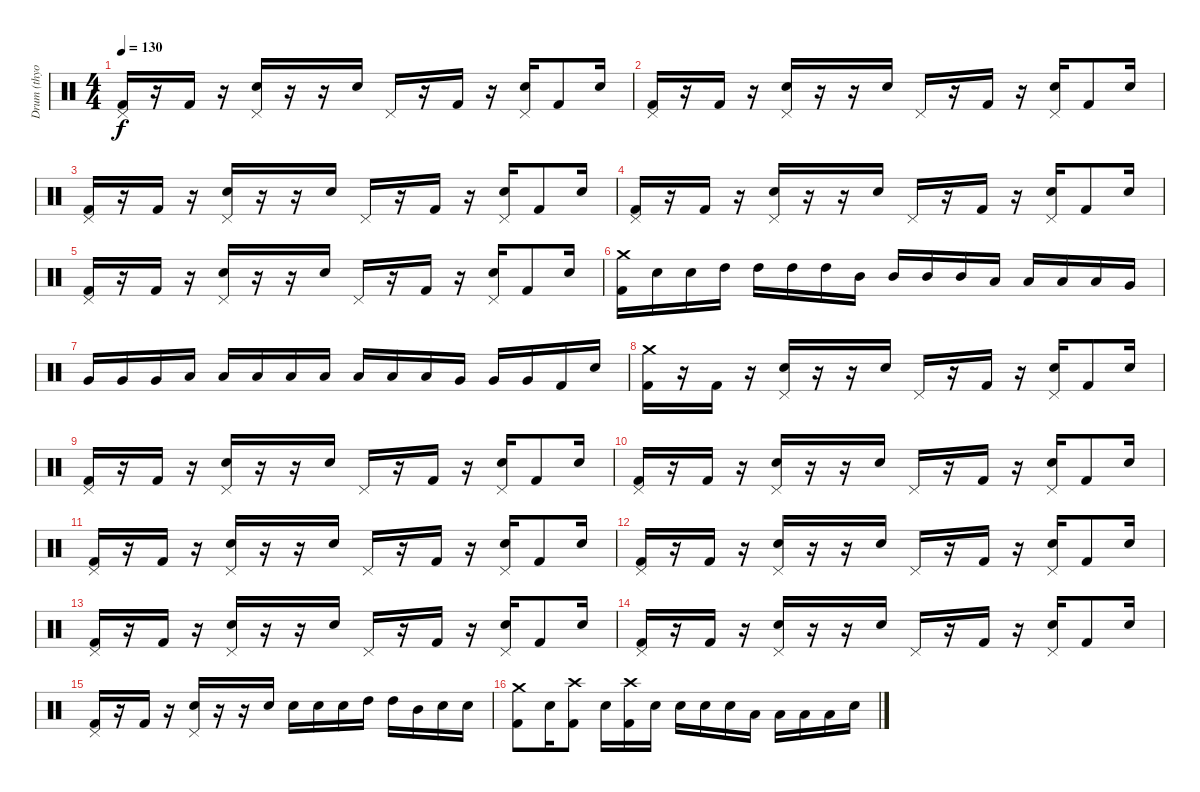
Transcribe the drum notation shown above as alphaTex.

\track ("Drum (thyo)" "Drum (thyo") {instrument percussion}
\staff {score}
\articulation defaults
\ts (4 4)
\tempo 130
\clef neutral
\ks c
("Pedal Hi-Hat (hit)" "Kick (hit) 2").16{dy f} r.16 "Kick (hit) 2".16 r.16 ("Electric Snare (hit)" "Pedal Hi-Hat (hit)").16 r.16 r.16 "Electric Snare (hit)".16 "Pedal Hi-Hat (hit)".16 r.16 "Kick (hit) 2".16 r.16 ("Electric Snare (hit)" "Pedal Hi-Hat (hit)").16 "Kick (hit) 2".8 "Electric Snare (hit)".16 |
("Pedal Hi-Hat (hit)" "Kick (hit) 2").16 r.16 "Kick (hit) 2".16 r.16 ("Electric Snare (hit)" "Pedal Hi-Hat (hit)").16 r.16 r.16 "Electric Snare (hit)".16 "Pedal Hi-Hat (hit)".16 r.16 "Kick (hit) 2".16 r.16 ("Electric Snare (hit)" "Pedal Hi-Hat (hit)").16 "Kick (hit) 2".8 "Electric Snare (hit)".16 |
("Pedal Hi-Hat (hit)" "Kick (hit) 2").16 r.16 "Kick (hit) 2".16 r.16 ("Electric Snare (hit)" "Pedal Hi-Hat (hit)").16 r.16 r.16 "Electric Snare (hit)".16 "Pedal Hi-Hat (hit)".16 r.16 "Kick (hit) 2".16 r.16 ("Electric Snare (hit)" "Pedal Hi-Hat (hit)").16 "Kick (hit) 2".8 "Electric Snare (hit)".16 |
("Pedal Hi-Hat (hit)" "Kick (hit) 2").16 r.16 "Kick (hit) 2".16 r.16 ("Electric Snare (hit)" "Pedal Hi-Hat (hit)").16 r.16 r.16 "Electric Snare (hit)".16 "Pedal Hi-Hat (hit)".16 r.16 "Kick (hit) 2".16 r.16 ("Electric Snare (hit)" "Pedal Hi-Hat (hit)").16 "Kick (hit) 2".8 "Electric Snare (hit)".16 |
("Pedal Hi-Hat (hit)" "Kick (hit) 2").16 r.16 "Kick (hit) 2".16 r.16 ("Electric Snare (hit)" "Pedal Hi-Hat (hit)").16 r.16 r.16 "Electric Snare (hit)".16 "Pedal Hi-Hat (hit)".16 r.16 "Kick (hit) 2".16 r.16 ("Electric Snare (hit)" "Pedal Hi-Hat (hit)").16 "Kick (hit) 2".8 "Electric Snare (hit)".16 |
("Crash medium (hit)" "Kick (hit) 2").16 "Electric Snare (hit)".16 "Electric Snare (hit)".16 "High Tom (hit)".16 "High Tom (hit)".16 "High Tom (hit)".16 "High Tom (hit)".16 "Mid Tom (hit)".16 "Mid Tom (hit)".16 "Mid Tom (hit)".16 "Mid Tom (hit)".16 "Low Tom (hit)".16 "Low Tom (hit)".16 "Low Tom (hit)".16 "Low Tom (hit)".16 "Very Low Tom (hit)".16 |
"Very Low Tom (hit)".16 "Very Low Tom (hit)".16 "Very Low Tom (hit)".16 "Low Floor Tom (hit)".16 "Low Floor Tom (hit)".16 "Low Floor Tom (hit)".16 "Low Floor Tom (hit)".16 "Low Tom (hit)".16 "Low Tom (hit)".16 "Low Tom (hit)".16 "Low Tom (hit)".16 "Very Low Tom (hit)".16 "Very Low Tom (hit)".16 "Very Low Tom (hit)".16 "Kick (hit) 2".16 "Electric Snare (hit)".16 |
("Crash medium (hit)" "Kick (hit) 2").16 r.16 "Kick (hit) 2".16 r.16 ("Electric Snare (hit)" "Pedal Hi-Hat (hit)").16 r.16 r.16 "Electric Snare (hit)".16 "Pedal Hi-Hat (hit)".16 r.16 "Kick (hit) 2".16 r.16 ("Electric Snare (hit)" "Pedal Hi-Hat (hit)").16 "Kick (hit) 2".8 "Electric Snare (hit)".16 |
("Pedal Hi-Hat (hit)" "Kick (hit) 2").16 r.16 "Kick (hit) 2".16 r.16 ("Electric Snare (hit)" "Pedal Hi-Hat (hit)").16 r.16 r.16 "Electric Snare (hit)".16 "Pedal Hi-Hat (hit)".16 r.16 "Kick (hit) 2".16 r.16 ("Electric Snare (hit)" "Pedal Hi-Hat (hit)").16 "Kick (hit) 2".8 "Electric Snare (hit)".16 |
("Pedal Hi-Hat (hit)" "Kick (hit) 2").16 r.16 "Kick (hit) 2".16 r.16 ("Electric Snare (hit)" "Pedal Hi-Hat (hit)").16 r.16 r.16 "Electric Snare (hit)".16 "Pedal Hi-Hat (hit)".16 r.16 "Kick (hit) 2".16 r.16 ("Electric Snare (hit)" "Pedal Hi-Hat (hit)").16 "Kick (hit) 2".8 "Electric Snare (hit)".16 |
("Pedal Hi-Hat (hit)" "Kick (hit) 2").16 r.16 "Kick (hit) 2".16 r.16 ("Electric Snare (hit)" "Pedal Hi-Hat (hit)").16 r.16 r.16 "Electric Snare (hit)".16 "Pedal Hi-Hat (hit)".16 r.16 "Kick (hit) 2".16 r.16 ("Electric Snare (hit)" "Pedal Hi-Hat (hit)").16 "Kick (hit) 2".8 "Electric Snare (hit)".16 |
("Pedal Hi-Hat (hit)" "Kick (hit) 2").16 r.16 "Kick (hit) 2".16 r.16 ("Electric Snare (hit)" "Pedal Hi-Hat (hit)").16 r.16 r.16 "Electric Snare (hit)".16 "Pedal Hi-Hat (hit)".16 r.16 "Kick (hit) 2".16 r.16 ("Electric Snare (hit)" "Pedal Hi-Hat (hit)").16 "Kick (hit) 2".8 "Electric Snare (hit)".16 |
("Pedal Hi-Hat (hit)" "Kick (hit) 2").16 r.16 "Kick (hit) 2".16 r.16 ("Electric Snare (hit)" "Pedal Hi-Hat (hit)").16 r.16 r.16 "Electric Snare (hit)".16 "Pedal Hi-Hat (hit)".16 r.16 "Kick (hit) 2".16 r.16 ("Electric Snare (hit)" "Pedal Hi-Hat (hit)").16 "Kick (hit) 2".8 "Electric Snare (hit)".16 |
("Pedal Hi-Hat (hit)" "Kick (hit) 2").16 r.16 "Kick (hit) 2".16 r.16 ("Electric Snare (hit)" "Pedal Hi-Hat (hit)").16 r.16 r.16 "Electric Snare (hit)".16 "Pedal Hi-Hat (hit)".16 r.16 "Kick (hit) 2".16 r.16 ("Electric Snare (hit)" "Pedal Hi-Hat (hit)").16 "Kick (hit) 2".8 "Electric Snare (hit)".16 |
("Pedal Hi-Hat (hit)" "Kick (hit) 2").16 r.16 "Kick (hit) 2".16 r.16 ("Electric Snare (hit)" "Pedal Hi-Hat (hit)").16 r.16 r.16 "Electric Snare (hit)".16 "Electric Snare (hit)".16 "Electric Snare (hit)".16 "Electric Snare (hit)".16 "High Tom (hit)".16 "High Tom (hit)".16 "Mid Tom (hit)".16 "Electric Snare (hit)".16 "Electric Snare (hit)".16 |
("Crash medium (hit)" "Kick (hit) 2").8 "Electric Snare (hit)".16 ("Crash high (hit)" "Kick (hit) 2").8 "Electric Snare (hit)".16 ("Crash high (hit)" "Kick (hit) 2").16 "Electric Snare (hit)".16 "Electric Snare (hit)".16 "Electric Snare (hit)".16 "Electric Snare (hit)".16 "Low Tom (hit)".16 "Low Tom (hit)".16 "Low Tom (hit)".16 "Low Tom (hit)".16 "Electric Snare (hit)".16
